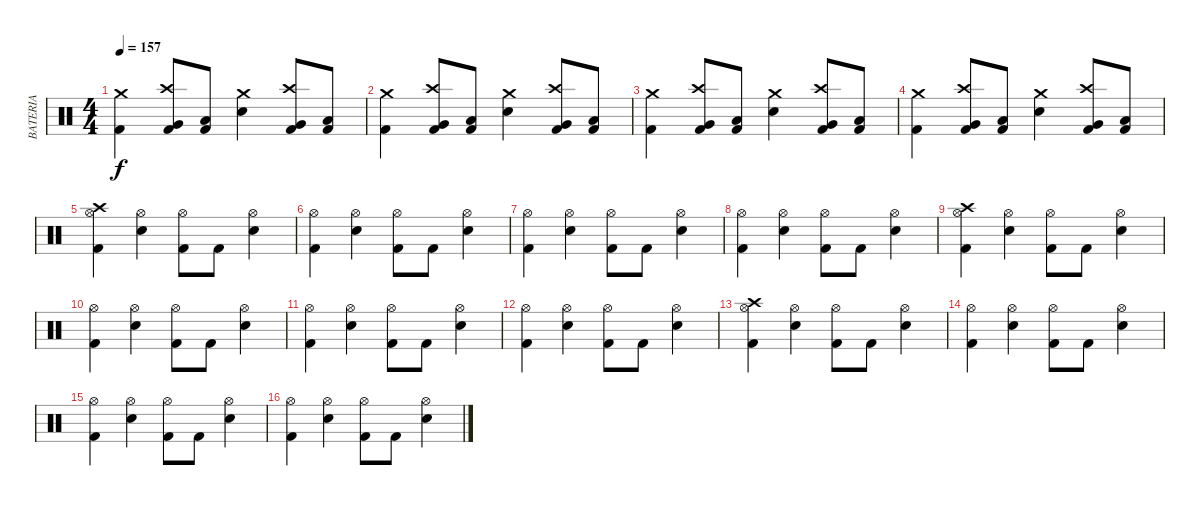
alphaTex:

\track ("BATERIA" "BATERIA") {instrument percussion}
\staff {score}
\articulation defaults
\ts (4 4)
\tempo 157
\clef neutral
\ks c
("Crash medium (hit)" "Kick (hit) 2").4{dy f} ("Crash high (hit)" "Very Low Tom (hit)" "Kick (hit) 2").8 ("Low Floor Tom (hit)" "Kick (hit) 2").8 ("Crash medium (hit)" "Snare (hit) 2").4 ("Crash high (hit)" "Very Low Tom (hit)" "Kick (hit) 2").8 ("Low Floor Tom (hit)" "Kick (hit) 2").8 |
("Crash medium (hit)" "Kick (hit) 2").4 ("Crash high (hit)" "Very Low Tom (hit)" "Kick (hit) 2").8 ("Low Floor Tom (hit)" "Kick (hit) 2").8 ("Crash medium (hit)" "Snare (hit) 2").4 ("Crash high (hit)" "Very Low Tom (hit)" "Kick (hit) 2").8 ("Low Floor Tom (hit)" "Kick (hit) 2").8 |
("Crash medium (hit)" "Kick (hit) 2").4 ("Crash high (hit)" "Very Low Tom (hit)" "Kick (hit) 2").8 ("Low Floor Tom (hit)" "Kick (hit) 2").8 ("Crash medium (hit)" "Snare (hit) 2").4 ("Crash high (hit)" "Very Low Tom (hit)" "Kick (hit) 2").8 ("Low Floor Tom (hit)" "Kick (hit) 2").8 |
("Crash medium (hit)" "Kick (hit) 2").4 ("Crash high (hit)" "Very Low Tom (hit)" "Kick (hit) 2").8 ("Low Floor Tom (hit)" "Kick (hit) 2").8 ("Crash medium (hit)" "Snare (hit) 2").4 ("Crash high (hit)" "Very Low Tom (hit)" "Kick (hit) 2").8 ("Low Floor Tom (hit)" "Kick (hit) 2").8 |
("Crash high (hit)" "Hi-Hat (open)" "Kick (hit) 2").4 ("Hi-Hat (open)" "Snare (hit) 2").4 ("Hi-Hat (open)" "Kick (hit) 2").8 "Kick (hit) 2".8 ("Hi-Hat (open)" "Snare (hit) 2").4 |
("Hi-Hat (open)" "Kick (hit) 2").4 ("Hi-Hat (open)" "Snare (hit) 2").4 ("Hi-Hat (open)" "Kick (hit) 2").8 "Kick (hit) 2".8 ("Hi-Hat (open)" "Snare (hit) 2").4 |
("Hi-Hat (open)" "Kick (hit) 2").4 ("Hi-Hat (open)" "Snare (hit) 2").4 ("Hi-Hat (open)" "Kick (hit) 2").8 "Kick (hit) 2".8 ("Hi-Hat (open)" "Snare (hit) 2").4 |
("Hi-Hat (open)" "Kick (hit) 2").4 ("Hi-Hat (open)" "Snare (hit) 2").4 ("Hi-Hat (open)" "Kick (hit) 2").8 "Kick (hit) 2".8 ("Hi-Hat (open)" "Snare (hit) 2").4 |
("Crash high (hit)" "Hi-Hat (open)" "Kick (hit) 2").4 ("Hi-Hat (open)" "Snare (hit) 2").4 ("Hi-Hat (open)" "Kick (hit) 2").8 "Kick (hit) 2".8 ("Hi-Hat (open)" "Snare (hit) 2").4 |
("Hi-Hat (open)" "Kick (hit) 2").4 ("Hi-Hat (open)" "Snare (hit) 2").4 ("Hi-Hat (open)" "Kick (hit) 2").8 "Kick (hit) 2".8 ("Hi-Hat (open)" "Snare (hit) 2").4 |
("Hi-Hat (open)" "Kick (hit) 2").4 ("Hi-Hat (open)" "Snare (hit) 2").4 ("Hi-Hat (open)" "Kick (hit) 2").8 "Kick (hit) 2".8 ("Hi-Hat (open)" "Snare (hit) 2").4 |
("Hi-Hat (open)" "Kick (hit) 2").4 ("Hi-Hat (open)" "Snare (hit) 2").4 ("Hi-Hat (open)" "Kick (hit) 2").8 "Kick (hit) 2".8 ("Hi-Hat (open)" "Snare (hit) 2").4 |
("Crash high (hit)" "Hi-Hat (open)" "Kick (hit) 2").4 ("Hi-Hat (open)" "Snare (hit) 2").4 ("Hi-Hat (open)" "Kick (hit) 2").8 "Kick (hit) 2".8 ("Hi-Hat (open)" "Snare (hit) 2").4 |
("Hi-Hat (open)" "Kick (hit) 2").4 ("Hi-Hat (open)" "Snare (hit) 2").4 ("Hi-Hat (open)" "Kick (hit) 2").8 "Kick (hit) 2".8 ("Hi-Hat (open)" "Snare (hit) 2").4 |
("Hi-Hat (open)" "Kick (hit) 2").4 ("Hi-Hat (open)" "Snare (hit) 2").4 ("Hi-Hat (open)" "Kick (hit) 2").8 "Kick (hit) 2".8 ("Hi-Hat (open)" "Snare (hit) 2").4 |
("Hi-Hat (open)" "Kick (hit) 2").4 ("Hi-Hat (open)" "Snare (hit) 2").4 ("Hi-Hat (open)" "Kick (hit) 2").8 "Kick (hit) 2".8 ("Hi-Hat (open)" "Snare (hit) 2").4
